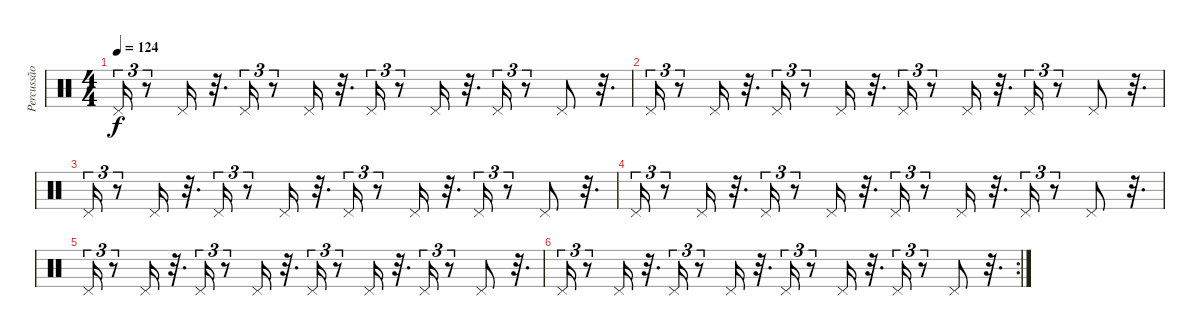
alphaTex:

\track ("Percussão" "Percussão") {instrument percussion}
\staff {score}
\articulation defaults
\ts (4 4)
\tempo 124
\clef neutral
\ks c "Pedal Hi-Hat (hit)".16{tu (3 2) dy f}
r.8{tu (3 2)} "Pedal Hi-Hat (hit)".16 r.32{d} "Pedal Hi-Hat (hit)".16{tu (3 2)} r.8{tu (3 2)} "Pedal Hi-Hat (hit)".16 r.32{d} "Pedal Hi-Hat (hit)".16{tu (3 2)} r.8{tu (3 2)} "Pedal Hi-Hat (hit)".16 r.32{d} "Pedal Hi-Hat (hit)".16{tu (3 2)} r.8{tu (3 2)} "Pedal Hi-Hat (hit)".8 r.32{d} |
"Pedal Hi-Hat (hit)".16{tu (3 2)} r.8{tu (3 2)} "Pedal Hi-Hat (hit)".16 r.32{d} "Pedal Hi-Hat (hit)".16{tu (3 2)} r.8{tu (3 2)} "Pedal Hi-Hat (hit)".16 r.32{d} "Pedal Hi-Hat (hit)".16{tu (3 2)} r.8{tu (3 2)} "Pedal Hi-Hat (hit)".16 r.32{d} "Pedal Hi-Hat (hit)".16{tu (3 2)} r.8{tu (3 2)} "Pedal Hi-Hat (hit)".8 r.32{d} |
"Pedal Hi-Hat (hit)".16{tu (3 2)} r.8{tu (3 2)} "Pedal Hi-Hat (hit)".16 r.32{d} "Pedal Hi-Hat (hit)".16{tu (3 2)} r.8{tu (3 2)} "Pedal Hi-Hat (hit)".16 r.32{d} "Pedal Hi-Hat (hit)".16{tu (3 2)} r.8{tu (3 2)} "Pedal Hi-Hat (hit)".16 r.32{d} "Pedal Hi-Hat (hit)".16{tu (3 2)} r.8{tu (3 2)} "Pedal Hi-Hat (hit)".8 r.32{d} |
"Pedal Hi-Hat (hit)".16{tu (3 2)} r.8{tu (3 2)} "Pedal Hi-Hat (hit)".16 r.32{d} "Pedal Hi-Hat (hit)".16{tu (3 2)} r.8{tu (3 2)} "Pedal Hi-Hat (hit)".16 r.32{d} "Pedal Hi-Hat (hit)".16{tu (3 2)} r.8{tu (3 2)} "Pedal Hi-Hat (hit)".16 r.32{d} "Pedal Hi-Hat (hit)".16{tu (3 2)} r.8{tu (3 2)} "Pedal Hi-Hat (hit)".8 r.32{d} |
"Pedal Hi-Hat (hit)".16{tu (3 2)} r.8{tu (3 2)} "Pedal Hi-Hat (hit)".16 r.32{d} "Pedal Hi-Hat (hit)".16{tu (3 2)} r.8{tu (3 2)} "Pedal Hi-Hat (hit)".16 r.32{d} "Pedal Hi-Hat (hit)".16{tu (3 2)} r.8{tu (3 2)} "Pedal Hi-Hat (hit)".16 r.32{d} "Pedal Hi-Hat (hit)".16{tu (3 2)} r.8{tu (3 2)} "Pedal Hi-Hat (hit)".8 r.32{d} |
\rc 2 "Pedal Hi-Hat (hit)".16{tu (3 2)}
r.8{tu (3 2)} "Pedal Hi-Hat (hit)".16 r.32{d} "Pedal Hi-Hat (hit)".16{tu (3 2)} r.8{tu (3 2)} "Pedal Hi-Hat (hit)".16 r.32{d} "Pedal Hi-Hat (hit)".16{tu (3 2)} r.8{tu (3 2)} "Pedal Hi-Hat (hit)".16 r.32{d} "Pedal Hi-Hat (hit)".16{tu (3 2)} r.8{tu (3 2)} "Pedal Hi-Hat (hit)".8 r.32{d}
